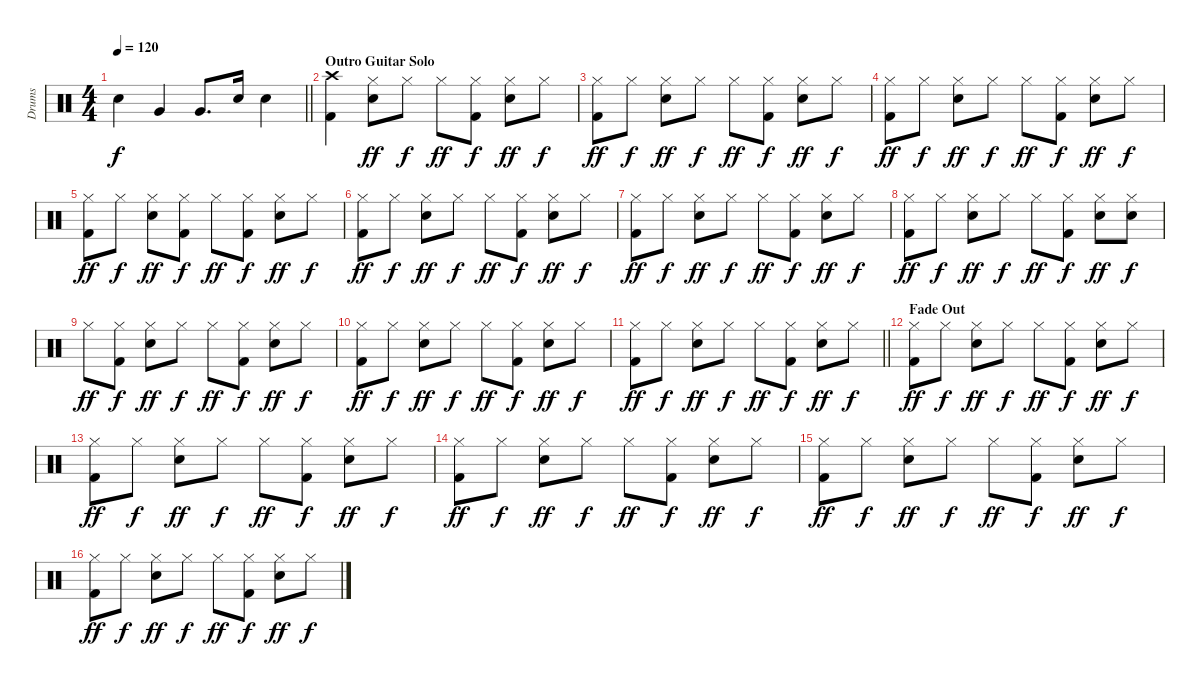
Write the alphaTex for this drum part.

\track ("Drums" "Drums") {instrument percussion}
\staff {score}
\articulation defaults
\ts (4 4)
\tempo 120
\clef neutral
\barLineRight lightlight
\ks c "Electric Snare (hit)".4{dy f} "Very Low Tom (hit)".4 "Very Low Tom (hit)".8{d} "Electric Snare (hit)".16 "Electric Snare (hit)".4
|
\section ("" "Outro Guitar Solo")
("Crash high (hit)" "Kick (hit) 2").4 ("Hi-Hat (closed)" "Electric Snare (hit)").8{dy ff} "Hi-Hat (closed)".8{dy f} "Hi-Hat (closed)".8{dy ff} ("Hi-Hat (closed)" "Kick (hit) 2").8{dy f} ("Hi-Hat (closed)" "Electric Snare (hit)").8{dy ff} "Hi-Hat (closed)".8{dy f} |
("Hi-Hat (closed)" "Kick (hit) 2").8{dy ff} "Hi-Hat (closed)".8{dy f} ("Hi-Hat (closed)" "Electric Snare (hit)").8{dy ff} "Hi-Hat (closed)".8{dy f} "Hi-Hat (closed)".8{dy ff} ("Hi-Hat (closed)" "Kick (hit) 2").8{dy f} ("Hi-Hat (closed)" "Electric Snare (hit)").8{dy ff} "Hi-Hat (closed)".8{dy f} |
("Hi-Hat (closed)" "Kick (hit) 2").8{dy ff} "Hi-Hat (closed)".8{dy f} ("Hi-Hat (closed)" "Electric Snare (hit)").8{dy ff} "Hi-Hat (closed)".8{dy f} "Hi-Hat (closed)".8{dy ff} ("Hi-Hat (closed)" "Kick (hit) 2").8{dy f} ("Hi-Hat (closed)" "Electric Snare (hit)").8{dy ff} "Hi-Hat (closed)".8{dy f} |
("Hi-Hat (closed)" "Kick (hit) 2").8{dy ff} "Hi-Hat (closed)".8{dy f} ("Hi-Hat (closed)" "Electric Snare (hit)").8{dy ff} ("Hi-Hat (closed)" "Kick (hit) 2").8{dy f} "Hi-Hat (closed)".8{dy ff} ("Hi-Hat (closed)" "Kick (hit) 2").8{dy f} ("Hi-Hat (closed)" "Electric Snare (hit)").8{dy ff} "Hi-Hat (closed)".8{dy f} |
("Hi-Hat (closed)" "Kick (hit) 2").8{dy ff} "Hi-Hat (closed)".8{dy f} ("Hi-Hat (closed)" "Electric Snare (hit)").8{dy ff} "Hi-Hat (closed)".8{dy f} "Hi-Hat (closed)".8{dy ff} ("Hi-Hat (closed)" "Kick (hit) 2").8{dy f} ("Hi-Hat (closed)" "Electric Snare (hit)").8{dy ff} "Hi-Hat (closed)".8{dy f} |
("Hi-Hat (closed)" "Kick (hit) 2").8{dy ff} "Hi-Hat (closed)".8{dy f} ("Hi-Hat (closed)" "Electric Snare (hit)").8{dy ff} "Hi-Hat (closed)".8{dy f} "Hi-Hat (closed)".8{dy ff} ("Hi-Hat (closed)" "Kick (hit) 2").8{dy f} ("Hi-Hat (closed)" "Electric Snare (hit)").8{dy ff} "Hi-Hat (closed)".8{dy f} |
("Hi-Hat (closed)" "Kick (hit) 2").8{dy ff} "Hi-Hat (closed)".8{dy f} ("Hi-Hat (closed)" "Electric Snare (hit)").8{dy ff} "Hi-Hat (closed)".8{dy f} "Hi-Hat (closed)".8{dy ff} ("Hi-Hat (closed)" "Kick (hit) 2").8{dy f} ("Hi-Hat (closed)" "Electric Snare (hit)").8{dy ff} ("Hi-Hat (closed)" "Electric Snare (hit)").8{dy f} |
"Hi-Hat (closed)".8{dy ff} ("Hi-Hat (closed)" "Kick (hit) 2").8{dy f} ("Hi-Hat (closed)" "Electric Snare (hit)").8{dy ff} "Hi-Hat (closed)".8{dy f} "Hi-Hat (closed)".8{dy ff} ("Hi-Hat (closed)" "Kick (hit) 2").8{dy f} ("Hi-Hat (closed)" "Electric Snare (hit)").8{dy ff} "Hi-Hat (closed)".8{dy f} |
("Hi-Hat (closed)" "Kick (hit) 2").8{dy ff} "Hi-Hat (closed)".8{dy f} ("Hi-Hat (closed)" "Electric Snare (hit)").8{dy ff} "Hi-Hat (closed)".8{dy f} "Hi-Hat (closed)".8{dy ff} ("Hi-Hat (closed)" "Kick (hit) 2").8{dy f} ("Hi-Hat (closed)" "Electric Snare (hit)").8{dy ff} "Hi-Hat (closed)".8{dy f} |
\barLineRight lightlight
("Hi-Hat (closed)" "Kick (hit) 2").8{dy ff} "Hi-Hat (closed)".8{dy f} ("Hi-Hat (closed)" "Electric Snare (hit)").8{dy ff} "Hi-Hat (closed)".8{dy f} "Hi-Hat (closed)".8{dy ff} ("Hi-Hat (closed)" "Kick (hit) 2").8{dy f} ("Hi-Hat (closed)" "Electric Snare (hit)").8{dy ff} "Hi-Hat (closed)".8{dy f} |
\section ("" "Fade Out")
("Hi-Hat (closed)" "Kick (hit) 2").8{dy ff volume 9} "Hi-Hat (closed)".8{dy f} ("Hi-Hat (closed)" "Electric Snare (hit)").8{dy ff} "Hi-Hat (closed)".8{dy f} "Hi-Hat (closed)".8{dy ff} ("Hi-Hat (closed)" "Kick (hit) 2").8{dy f} ("Hi-Hat (closed)" "Electric Snare (hit)").8{dy ff} "Hi-Hat (closed)".8{dy f} |
("Hi-Hat (closed)" "Kick (hit) 2").8{dy ff} "Hi-Hat (closed)".8{dy f} ("Hi-Hat (closed)" "Electric Snare (hit)").8{dy ff} "Hi-Hat (closed)".8{dy f} "Hi-Hat (closed)".8{dy ff} ("Hi-Hat (closed)" "Kick (hit) 2").8{dy f} ("Hi-Hat (closed)" "Electric Snare (hit)").8{dy ff} "Hi-Hat (closed)".8{dy f} |
("Hi-Hat (closed)" "Kick (hit) 2").8{dy ff volume 5} "Hi-Hat (closed)".8{dy f} ("Hi-Hat (closed)" "Electric Snare (hit)").8{dy ff} "Hi-Hat (closed)".8{dy f} "Hi-Hat (closed)".8{dy ff} ("Hi-Hat (closed)" "Kick (hit) 2").8{dy f} ("Hi-Hat (closed)" "Electric Snare (hit)").8{dy ff} "Hi-Hat (closed)".8{dy f} |
("Hi-Hat (closed)" "Kick (hit) 2").8{dy ff} "Hi-Hat (closed)".8{dy f} ("Hi-Hat (closed)" "Electric Snare (hit)").8{dy ff} "Hi-Hat (closed)".8{dy f} "Hi-Hat (closed)".8{dy ff} ("Hi-Hat (closed)" "Kick (hit) 2").8{dy f} ("Hi-Hat (closed)" "Electric Snare (hit)").8{dy ff} "Hi-Hat (closed)".8{dy f} |
("Hi-Hat (closed)" "Kick (hit) 2").8{dy ff volume 0} "Hi-Hat (closed)".8{dy f} ("Hi-Hat (closed)" "Electric Snare (hit)").8{dy ff} "Hi-Hat (closed)".8{dy f} "Hi-Hat (closed)".8{dy ff} ("Hi-Hat (closed)" "Kick (hit) 2").8{dy f} ("Hi-Hat (closed)" "Electric Snare (hit)").8{dy ff} "Hi-Hat (closed)".8{dy f}
